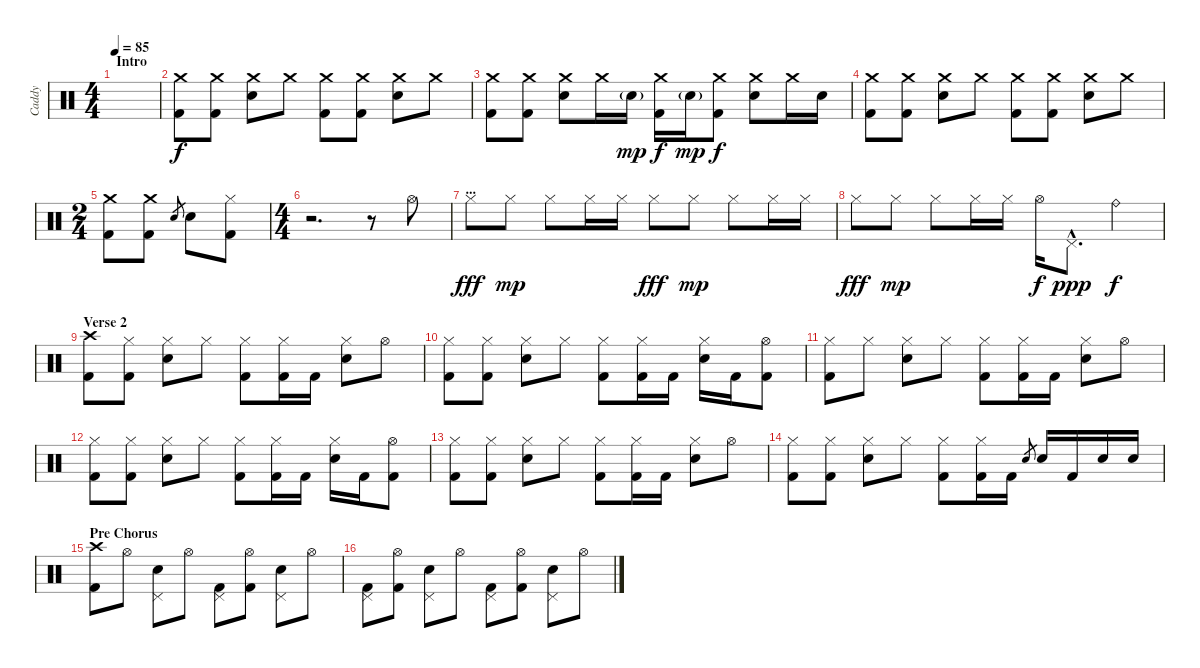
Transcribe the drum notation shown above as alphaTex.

\track ("Caddy" "Caddy") {instrument percussion}
\staff {score}
\articulation defaults
\ts (4 4)
\section ("" "Intro")
\tempo 85
\clef neutral
\ks c
|
("Crash medium (hit)" "Kick (hit) 2").8 ("Crash medium (hit)" "Kick (hit) 2").8 ("Crash medium (hit)" "Electric Snare (hit)").8 "Crash medium (hit)".8 ("Crash medium (hit)" "Kick (hit) 2").8 ("Crash medium (hit)" "Kick (hit) 2").8 ("Crash medium (hit)" "Electric Snare (hit)").8 "Crash medium (hit)".8 |
("Crash medium (hit)" "Kick (hit) 2").8 ("Crash medium (hit)" "Kick (hit) 2").8 ("Crash medium (hit)" "Electric Snare (hit)").8 "Crash medium (hit)".16 "Electric Snare (hit)"{g}.16{dy mp} ("Crash medium (hit)" "Kick (hit) 2").16{dy f} "Electric Snare (hit)"{g}.16{dy mp} ("Crash medium (hit)" "Kick (hit) 2").8{dy f} ("Crash medium (hit)" "Electric Snare (hit)").8 "Crash medium (hit)".16 "Electric Snare (hit)".16 |
("Crash medium (hit)" "Kick (hit) 2").8 ("Crash medium (hit)" "Kick (hit) 2").8 ("Crash medium (hit)" "Electric Snare (hit)").8 "Crash medium (hit)".8 ("Crash medium (hit)" "Kick (hit) 2").8 ("Crash medium (hit)" "Kick (hit) 2").8 ("Crash medium (hit)" "Electric Snare (hit)").8 "Crash medium (hit)".8 |
\ts (2 4)
("Crash medium (hit)" "Kick (hit) 2").8 ("Crash medium (hit)" "Kick (hit) 2").8 "Electric Snare (hit)".8{gr} "Electric Snare (hit)".8 ("Hi-Hat (closed)" "Kick (hit) 2").8 |
\ts (4 4)
r.2{d} r.8 "Hi-Hat (open)".8 |
\section ("" "...")
"Hi-Hat (closed)".8{dy fff} "Hi-Hat (closed)".8{dy mp} "Hi-Hat (closed)".8 "Hi-Hat (closed)".16 "Hi-Hat (closed)".16 "Hi-Hat (closed)".8{dy fff} "Hi-Hat (closed)".8{dy mp} "Hi-Hat (closed)".8 "Hi-Hat (closed)".16 "Hi-Hat (closed)".16 |
"Hi-Hat (closed)".8{dy fff} "Hi-Hat (closed)".8{dy mp} "Hi-Hat (closed)".8 "Hi-Hat (closed)".16 "Hi-Hat (closed)".16 "Hi-Hat (open)".16{dy f} "Pedal Hi-Hat (hit)"{hac}.8{d dy ppp} "Ride (bell)".4{dy f} |
\section ("" "Verse 2")
("Crash high (hit)" "Kick (hit) 2").8 ("Hi-Hat (closed)" "Kick (hit) 2").8 ("Hi-Hat (closed)" "Electric Snare (hit)").8 "Hi-Hat (closed)".8 ("Hi-Hat (closed)" "Kick (hit) 2").8 ("Hi-Hat (closed)" "Kick (hit) 2").16 "Kick (hit) 2".16 ("Hi-Hat (closed)" "Electric Snare (hit)").8 "Hi-Hat (open)".8 |
("Hi-Hat (closed)" "Kick (hit) 2").8 ("Hi-Hat (closed)" "Kick (hit) 2").8 ("Hi-Hat (closed)" "Electric Snare (hit)").8 "Hi-Hat (closed)".8 ("Hi-Hat (closed)" "Kick (hit) 2").8 ("Hi-Hat (closed)" "Kick (hit) 2").16 "Kick (hit) 2".16 ("Hi-Hat (closed)" "Electric Snare (hit)").16 "Kick (hit) 2".16 ("Hi-Hat (open)" "Kick (hit) 2").8 |
("Hi-Hat (closed)" "Kick (hit) 2").8 "Hi-Hat (closed)".8 ("Hi-Hat (closed)" "Electric Snare (hit)").8 "Hi-Hat (closed)".8 ("Hi-Hat (closed)" "Kick (hit) 2").8 ("Hi-Hat (closed)" "Kick (hit) 2").16 "Kick (hit) 2".16 ("Hi-Hat (closed)" "Electric Snare (hit)").8 "Hi-Hat (open)".8 |
("Hi-Hat (closed)" "Kick (hit) 2").8 ("Hi-Hat (closed)" "Kick (hit) 2").8 ("Hi-Hat (closed)" "Electric Snare (hit)").8 "Hi-Hat (closed)".8 ("Hi-Hat (closed)" "Kick (hit) 2").8 ("Hi-Hat (closed)" "Kick (hit) 2").16 "Kick (hit) 2".16 ("Hi-Hat (closed)" "Electric Snare (hit)").16 "Kick (hit) 2".16 ("Hi-Hat (open)" "Kick (hit) 2").8 |
("Hi-Hat (closed)" "Kick (hit) 2").8 ("Hi-Hat (closed)" "Kick (hit) 2").8 ("Hi-Hat (closed)" "Electric Snare (hit)").8 "Hi-Hat (closed)".8 ("Hi-Hat (closed)" "Kick (hit) 2").8 ("Hi-Hat (closed)" "Kick (hit) 2").16 "Kick (hit) 2".16 ("Hi-Hat (closed)" "Electric Snare (hit)").8 "Hi-Hat (open)".8 |
("Hi-Hat (closed)" "Kick (hit) 2").8 ("Hi-Hat (closed)" "Kick (hit) 2").8 ("Hi-Hat (closed)" "Electric Snare (hit)").8 "Hi-Hat (closed)".8 ("Hi-Hat (closed)" "Kick (hit) 2").8 ("Hi-Hat (closed)" "Kick (hit) 2").16 "Kick (hit) 2".16 "Electric Snare (hit)".8{gr} "Electric Snare (hit)".16 "Kick (hit) 2".16 "Electric Snare (hit)".16 "Electric Snare (hit)".16 |
\section ("" "Pre Chorus")
("Crash high (hit)" "Kick (hit) 2").8 "Hi-Hat (open)".8 ("Pedal Hi-Hat (hit)" "Electric Snare (hit)").8 "Hi-Hat (open)".8 ("Pedal Hi-Hat (hit)" "Kick (hit) 2").8 ("Hi-Hat (open)" "Kick (hit) 2").8 ("Pedal Hi-Hat (hit)" "Electric Snare (hit)").8 "Hi-Hat (open)".8 |
("Pedal Hi-Hat (hit)" "Kick (hit) 2").8 ("Hi-Hat (open)" "Kick (hit) 2").8 ("Pedal Hi-Hat (hit)" "Electric Snare (hit)").8 "Hi-Hat (open)".8 ("Pedal Hi-Hat (hit)" "Kick (hit) 2").8 ("Hi-Hat (open)" "Kick (hit) 2").8 ("Pedal Hi-Hat (hit)" "Electric Snare (hit)").8 "Hi-Hat (open)".8
